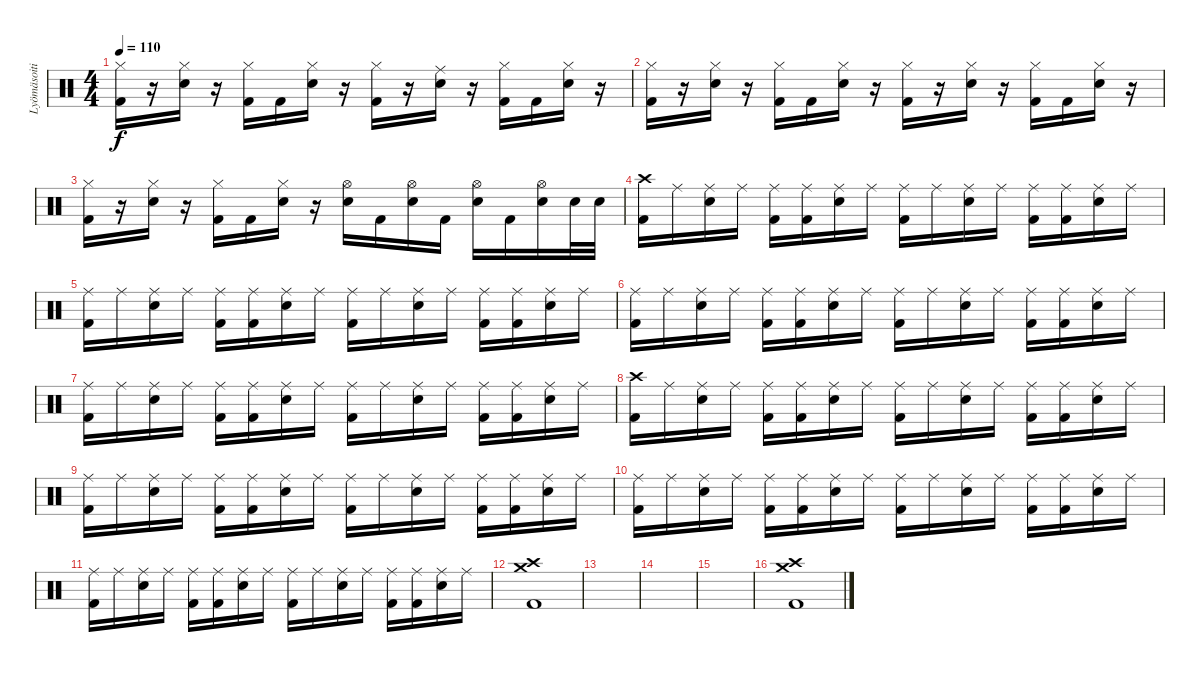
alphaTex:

\track ("Lyömäsoitin" "Lyömäsoiti") {instrument percussion}
\staff {score}
\articulation defaults
\ts (4 4)
\tempo 110
\clef neutral
\ks c
("Hi-Hat (closed)" "Kick (hit) 2").16{dy f} r.16 ("Hi-Hat (closed)" "Snare (hit) 2").16 r.16 ("Hi-Hat (closed)" "Kick (hit) 2").16 "Kick (hit) 2".16 ("Hi-Hat (closed)" "Snare (hit) 2").16 r.16 ("Hi-Hat (closed)" "Kick (hit) 2").16 r.16 ("Ride (middle)" "Snare (hit) 2").16 r.16 ("Hi-Hat (closed)" "Kick (hit) 2").16 "Kick (hit) 2".16 ("Hi-Hat (closed)" "Snare (hit) 2").16 r.16 |
("Hi-Hat (closed)" "Kick (hit) 2").16 r.16 ("Hi-Hat (closed)" "Snare (hit) 2").16 r.16 ("Hi-Hat (closed)" "Kick (hit) 2").16 "Kick (hit) 2".16 ("Hi-Hat (closed)" "Snare (hit) 2").16 r.16 ("Hi-Hat (closed)" "Kick (hit) 2").16 r.16 ("Hi-Hat (closed)" "Snare (hit) 2").16 r.16 ("Hi-Hat (closed)" "Kick (hit) 2").16 "Kick (hit) 2".16 ("Hi-Hat (closed)" "Snare (hit) 2").16 r.16 |
("Hi-Hat (closed)" "Kick (hit) 2").16 r.16 ("Hi-Hat (closed)" "Snare (hit) 2").16 r.16 ("Hi-Hat (closed)" "Kick (hit) 2").16 "Kick (hit) 2".16 ("Hi-Hat (closed)" "Snare (hit) 2").16 r.16 ("Hi-Hat (open)" "Snare (hit) 2").16 "Kick (hit) 2".16 ("Hi-Hat (open)" "Snare (hit) 2").16 "Kick (hit) 2".16 ("Hi-Hat (open)" "Snare (hit) 2").16 "Kick (hit) 2".16 ("Hi-Hat (open)" "Snare (hit) 2").16 "Snare (hit) 2".32 "Snare (hit) 2".32 |
("Crash high (hit)" "Kick (hit) 2").16 "Ride (middle)".16 ("Ride (middle)" "Snare (hit) 2").16 "Ride (middle)".16 ("Ride (middle)" "Kick (hit) 2").16 ("Ride (middle)" "Kick (hit) 2").16 ("Ride (middle)" "Snare (hit) 2").16 "Ride (middle)".16 ("Ride (middle)" "Kick (hit) 2").16 "Ride (middle)".16 ("Ride (middle)" "Snare (hit) 2").16 "Ride (middle)".16 ("Ride (middle)" "Kick (hit) 2").16 ("Ride (middle)" "Kick (hit) 2").16 ("Ride (middle)" "Snare (hit) 2").16 "Ride (middle)".16 |
("Ride (middle)" "Kick (hit) 2").16 "Ride (middle)".16 ("Ride (middle)" "Snare (hit) 2").16 "Ride (middle)".16 ("Ride (middle)" "Kick (hit) 2").16 ("Ride (middle)" "Kick (hit) 2").16 ("Ride (middle)" "Snare (hit) 2").16 "Ride (middle)".16 ("Ride (middle)" "Kick (hit) 2").16 "Ride (middle)".16 ("Ride (middle)" "Snare (hit) 2").16 "Ride (middle)".16 ("Ride (middle)" "Kick (hit) 2").16 ("Ride (middle)" "Kick (hit) 2").16 ("Ride (middle)" "Snare (hit) 2").16 "Ride (middle)".16 |
("Ride (middle)" "Kick (hit) 2").16 "Ride (middle)".16 ("Ride (middle)" "Snare (hit) 2").16 "Ride (middle)".16 ("Ride (middle)" "Kick (hit) 2").16 ("Ride (middle)" "Kick (hit) 2").16 ("Ride (middle)" "Snare (hit) 2").16 "Ride (middle)".16 ("Ride (middle)" "Kick (hit) 2").16 "Ride (middle)".16 ("Ride (middle)" "Snare (hit) 2").16 "Ride (middle)".16 ("Ride (middle)" "Kick (hit) 2").16 ("Ride (middle)" "Kick (hit) 2").16 ("Ride (middle)" "Snare (hit) 2").16 "Ride (middle)".16 |
("Ride (middle)" "Kick (hit) 2").16 "Ride (middle)".16 ("Ride (middle)" "Snare (hit) 2").16 "Ride (middle)".16 ("Ride (middle)" "Kick (hit) 2").16 ("Ride (middle)" "Kick (hit) 2").16 ("Ride (middle)" "Snare (hit) 2").16 "Ride (middle)".16 ("Ride (middle)" "Kick (hit) 2").16 "Ride (middle)".16 ("Ride (middle)" "Snare (hit) 2").16 "Ride (middle)".16 ("Ride (middle)" "Kick (hit) 2").16 ("Ride (middle)" "Kick (hit) 2").16 ("Ride (middle)" "Snare (hit) 2").16 "Ride (middle)".16 |
("Crash high (hit)" "Kick (hit) 2").16 "Ride (middle)".16 ("Ride (middle)" "Snare (hit) 2").16 "Ride (middle)".16 ("Ride (middle)" "Kick (hit) 2").16 ("Ride (middle)" "Kick (hit) 2").16 ("Ride (middle)" "Snare (hit) 2").16 "Ride (middle)".16 ("Ride (middle)" "Kick (hit) 2").16 "Ride (middle)".16 ("Ride (middle)" "Snare (hit) 2").16 "Ride (middle)".16 ("Ride (middle)" "Kick (hit) 2").16 ("Ride (middle)" "Kick (hit) 2").16 ("Ride (middle)" "Snare (hit) 2").16 "Ride (middle)".16 |
("Ride (middle)" "Kick (hit) 2").16 "Ride (middle)".16 ("Ride (middle)" "Snare (hit) 2").16 "Ride (middle)".16 ("Ride (middle)" "Kick (hit) 2").16 ("Ride (middle)" "Kick (hit) 2").16 ("Ride (middle)" "Snare (hit) 2").16 "Ride (middle)".16 ("Ride (middle)" "Kick (hit) 2").16 "Ride (middle)".16 ("Ride (middle)" "Snare (hit) 2").16 "Ride (middle)".16 ("Ride (middle)" "Kick (hit) 2").16 ("Ride (middle)" "Kick (hit) 2").16 ("Ride (middle)" "Snare (hit) 2").16 "Ride (middle)".16 |
("Ride (middle)" "Kick (hit) 2").16 "Ride (middle)".16 ("Ride (middle)" "Snare (hit) 2").16 "Ride (middle)".16 ("Ride (middle)" "Kick (hit) 2").16 ("Ride (middle)" "Kick (hit) 2").16 ("Ride (middle)" "Snare (hit) 2").16 "Ride (middle)".16 ("Ride (middle)" "Kick (hit) 2").16 "Ride (middle)".16 ("Ride (middle)" "Snare (hit) 2").16 "Ride (middle)".16 ("Ride (middle)" "Kick (hit) 2").16 ("Ride (middle)" "Kick (hit) 2").16 ("Ride (middle)" "Snare (hit) 2").16 "Ride (middle)".16 |
("Ride (middle)" "Kick (hit) 2").16 "Ride (middle)".16 ("Ride (middle)" "Snare (hit) 2").16 "Ride (middle)".16 ("Ride (middle)" "Kick (hit) 2").16 ("Ride (middle)" "Kick (hit) 2").16 ("Ride (middle)" "Snare (hit) 2").16 "Ride (middle)".16 ("Ride (middle)" "Kick (hit) 2").16 "Ride (middle)".16 ("Ride (middle)" "Snare (hit) 2").16 "Ride (middle)".16 ("Ride (middle)" "Kick (hit) 2").16 ("Ride (middle)" "Kick (hit) 2").16 ("Ride (middle)" "Snare (hit) 2").16 "Ride (middle)".16 |
("Crash high (hit)" "Crash medium (hit)" "Kick (hit) 2").1 |
|
|
|
("Crash high (hit)" "Crash medium (hit)" "Kick (hit) 2").1
